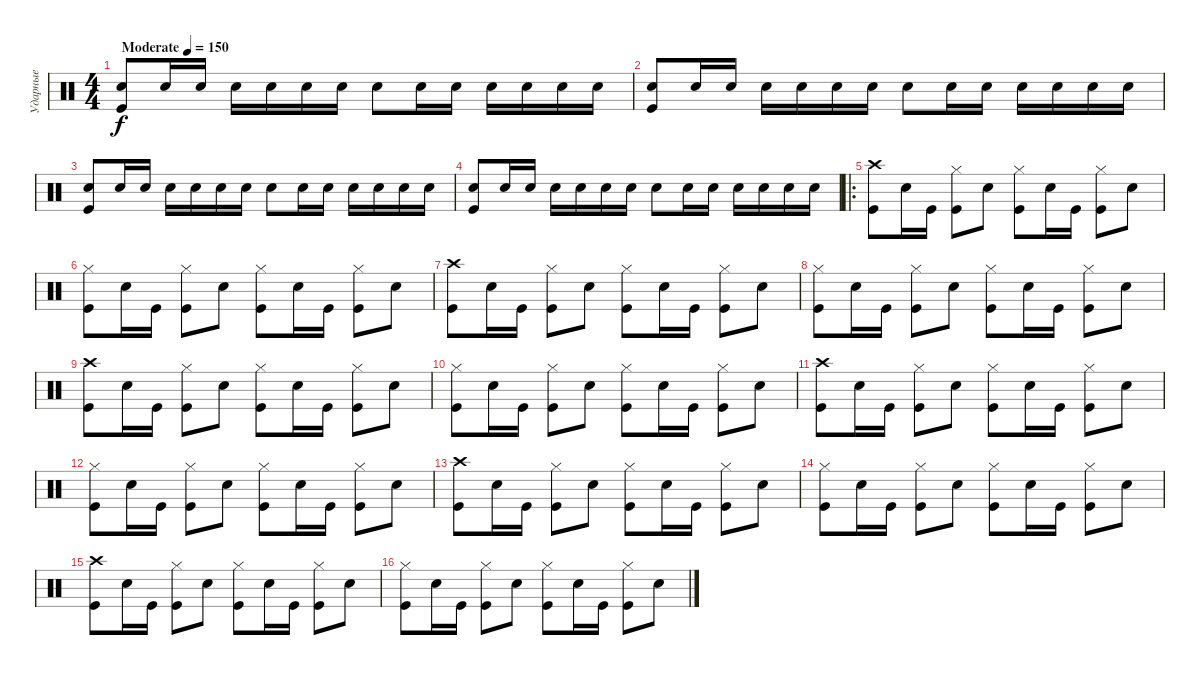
\track ("Ударные" "Ударные") {instrument percussion}
\staff {score}
\articulation defaults
\ts (4 4)
\tempo (150 "Moderate")
\clef neutral
\ks c
("Electric Snare (hit)" "Kick (hit)").8{dy f} "Electric Snare (hit)".16 "Electric Snare (hit)".16 "Electric Snare (hit)".16 "Electric Snare (hit)".16 "Electric Snare (hit)".16 "Electric Snare (hit)".16 "Electric Snare (hit)".8 "Electric Snare (hit)".16 "Electric Snare (hit)".16 "Electric Snare (hit)".16 "Electric Snare (hit)".16 "Electric Snare (hit)".16 "Electric Snare (hit)".16 |
("Electric Snare (hit)" "Kick (hit)").8 "Electric Snare (hit)".16 "Electric Snare (hit)".16 "Electric Snare (hit)".16 "Electric Snare (hit)".16 "Electric Snare (hit)".16 "Electric Snare (hit)".16 "Electric Snare (hit)".8 "Electric Snare (hit)".16 "Electric Snare (hit)".16 "Electric Snare (hit)".16 "Electric Snare (hit)".16 "Electric Snare (hit)".16 "Electric Snare (hit)".16 |
("Electric Snare (hit)" "Kick (hit)").8 "Electric Snare (hit)".16 "Electric Snare (hit)".16 "Electric Snare (hit)".16 "Electric Snare (hit)".16 "Electric Snare (hit)".16 "Electric Snare (hit)".16 "Electric Snare (hit)".8 "Electric Snare (hit)".16 "Electric Snare (hit)".16 "Electric Snare (hit)".16 "Electric Snare (hit)".16 "Electric Snare (hit)".16 "Electric Snare (hit)".16 |
("Electric Snare (hit)" "Kick (hit)").8 "Electric Snare (hit)".16 "Electric Snare (hit)".16 "Electric Snare (hit)".16 "Electric Snare (hit)".16 "Electric Snare (hit)".16 "Electric Snare (hit)".16 "Electric Snare (hit)".8 "Electric Snare (hit)".16 "Electric Snare (hit)".16 "Electric Snare (hit)".16 "Electric Snare (hit)".16 "Electric Snare (hit)".16 "Electric Snare (hit)".16 |
\ro
("Crash high (hit)" "Kick (hit)").8 "Snare (hit) 2".16 "Kick (hit)".16 ("Hi-Hat (closed)" "Kick (hit)").8 "Snare (hit) 2".8 ("Hi-Hat (closed)" "Kick (hit)").8 "Snare (hit) 2".16 "Kick (hit)".16 ("Hi-Hat (closed)" "Kick (hit)").8 "Snare (hit) 2".8 |
("Hi-Hat (closed)" "Kick (hit)").8 "Snare (hit) 2".16 "Kick (hit)".16 ("Hi-Hat (closed)" "Kick (hit)").8 "Snare (hit) 2".8 ("Hi-Hat (closed)" "Kick (hit)").8 "Snare (hit) 2".16 "Kick (hit)".16 ("Hi-Hat (closed)" "Kick (hit)").8 "Snare (hit) 2".8 |
("Crash high (hit)" "Kick (hit)").8 "Snare (hit) 2".16 "Kick (hit)".16 ("Hi-Hat (closed)" "Kick (hit)").8 "Snare (hit) 2".8 ("Hi-Hat (closed)" "Kick (hit)").8 "Snare (hit) 2".16 "Kick (hit)".16 ("Hi-Hat (closed)" "Kick (hit)").8 "Snare (hit) 2".8 |
("Hi-Hat (closed)" "Kick (hit)").8 "Snare (hit) 2".16 "Kick (hit)".16 ("Hi-Hat (closed)" "Kick (hit)").8 "Snare (hit) 2".8 ("Hi-Hat (closed)" "Kick (hit)").8 "Snare (hit) 2".16 "Kick (hit)".16 ("Hi-Hat (closed)" "Kick (hit)").8 "Snare (hit) 2".8 |
("Crash high (hit)" "Kick (hit)").8 "Snare (hit) 2".16 "Kick (hit)".16 ("Hi-Hat (closed)" "Kick (hit)").8 "Snare (hit) 2".8 ("Hi-Hat (closed)" "Kick (hit)").8 "Snare (hit) 2".16 "Kick (hit)".16 ("Hi-Hat (closed)" "Kick (hit)").8 "Snare (hit) 2".8 |
("Hi-Hat (closed)" "Kick (hit)").8 "Snare (hit) 2".16 "Kick (hit)".16 ("Hi-Hat (closed)" "Kick (hit)").8 "Snare (hit) 2".8 ("Hi-Hat (closed)" "Kick (hit)").8 "Snare (hit) 2".16 "Kick (hit)".16 ("Hi-Hat (closed)" "Kick (hit)").8 "Snare (hit) 2".8 |
("Crash high (hit)" "Kick (hit)").8 "Snare (hit) 2".16 "Kick (hit)".16 ("Hi-Hat (closed)" "Kick (hit)").8 "Snare (hit) 2".8 ("Hi-Hat (closed)" "Kick (hit)").8 "Snare (hit) 2".16 "Kick (hit)".16 ("Hi-Hat (closed)" "Kick (hit)").8 "Snare (hit) 2".8 |
("Hi-Hat (closed)" "Kick (hit)").8 "Snare (hit) 2".16 "Kick (hit)".16 ("Hi-Hat (closed)" "Kick (hit)").8 "Snare (hit) 2".8 ("Hi-Hat (closed)" "Kick (hit)").8 "Snare (hit) 2".16 "Kick (hit)".16 ("Hi-Hat (closed)" "Kick (hit)").8 "Snare (hit) 2".8 |
("Crash high (hit)" "Kick (hit)").8 "Snare (hit) 2".16 "Kick (hit)".16 ("Hi-Hat (closed)" "Kick (hit)").8 "Snare (hit) 2".8 ("Hi-Hat (closed)" "Kick (hit)").8 "Snare (hit) 2".16 "Kick (hit)".16 ("Hi-Hat (closed)" "Kick (hit)").8 "Snare (hit) 2".8 |
("Hi-Hat (closed)" "Kick (hit)").8 "Snare (hit) 2".16 "Kick (hit)".16 ("Hi-Hat (closed)" "Kick (hit)").8 "Snare (hit) 2".8 ("Hi-Hat (closed)" "Kick (hit)").8 "Snare (hit) 2".16 "Kick (hit)".16 ("Hi-Hat (closed)" "Kick (hit)").8 "Snare (hit) 2".8 |
("Crash high (hit)" "Kick (hit)").8 "Snare (hit) 2".16 "Kick (hit)".16 ("Hi-Hat (closed)" "Kick (hit)").8 "Snare (hit) 2".8 ("Hi-Hat (closed)" "Kick (hit)").8 "Snare (hit) 2".16 "Kick (hit)".16 ("Hi-Hat (closed)" "Kick (hit)").8 "Snare (hit) 2".8 |
("Hi-Hat (closed)" "Kick (hit)").8 "Snare (hit) 2".16 "Kick (hit)".16 ("Hi-Hat (closed)" "Kick (hit)").8 "Snare (hit) 2".8 ("Hi-Hat (closed)" "Kick (hit)").8 "Snare (hit) 2".16 "Kick (hit)".16 ("Hi-Hat (closed)" "Kick (hit)").8 "Snare (hit) 2".8
